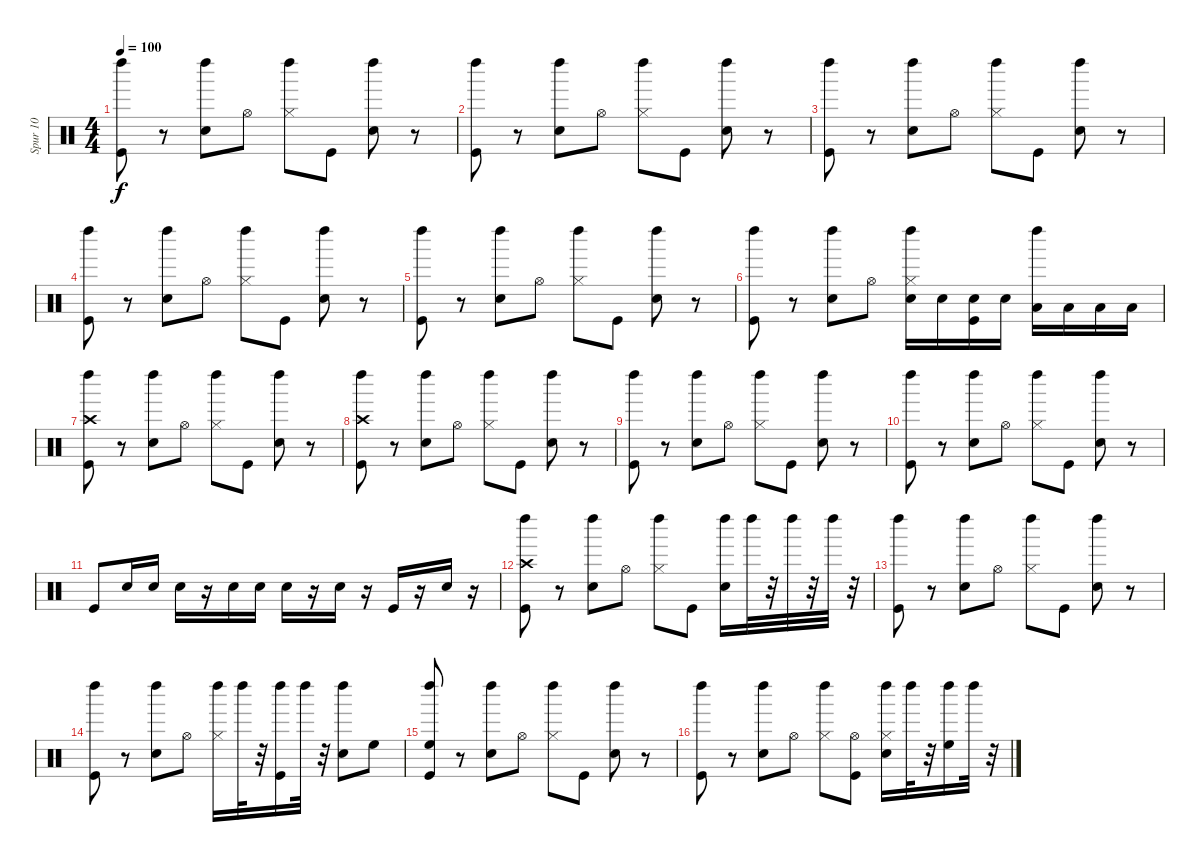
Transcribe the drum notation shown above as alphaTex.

\track ("Spur 10" "Spur 10") {instrument percussion}
\staff {score}
\articulation defaults
\ts (4 4)
\tempo 100
\clef neutral
\ks c
("Kick (hit)" "Left Maraca (hit)").8{dy f} r.8 ("Snare (hit) 2" "Left Maraca (hit)").8 "Hi-Hat (open)".8 ("Hi-Hat (closed)" "Left Maraca (hit)").8 "Kick (hit)".8 ("Snare (hit) 2" "Left Maraca (hit)").8 r.8 |
("Kick (hit)" "Left Maraca (hit)").8 r.8 ("Snare (hit) 2" "Left Maraca (hit)").8 "Hi-Hat (open)".8 ("Hi-Hat (closed)" "Left Maraca (hit)").8 "Kick (hit)".8 ("Snare (hit) 2" "Left Maraca (hit)").8 r.8 |
("Kick (hit)" "Left Maraca (hit)").8 r.8 ("Snare (hit) 2" "Left Maraca (hit)").8 "Hi-Hat (open)".8 ("Hi-Hat (closed)" "Left Maraca (hit)").8 "Kick (hit)".8 ("Snare (hit) 2" "Left Maraca (hit)").8 r.8 |
("Kick (hit)" "Left Maraca (hit)").8 r.8 ("Snare (hit) 2" "Left Maraca (hit)").8 "Hi-Hat (open)".8 ("Hi-Hat (closed)" "Left Maraca (hit)").8 "Kick (hit)".8 ("Snare (hit) 2" "Left Maraca (hit)").8 r.8 |
("Kick (hit)" "Left Maraca (hit)").8 r.8 ("Snare (hit) 2" "Left Maraca (hit)").8 "Hi-Hat (open)".8 ("Hi-Hat (closed)" "Left Maraca (hit)").8 "Kick (hit)".8 ("Snare (hit) 2" "Left Maraca (hit)").8 r.8 |
("Kick (hit)" "Left Maraca (hit)").8 r.8 ("Snare (hit) 2" "Left Maraca (hit)").8 "Hi-Hat (open)".8 ("Electric Snare (hit)" "Hi-Hat (closed)" "Left Maraca (hit)").16 "Electric Snare (hit)".16 ("Electric Snare (hit)" "Kick (hit)").16 "Electric Snare (hit)".16 ("Low Tom (hit)" "Left Maraca (hit)").16 "Low Tom (hit)".16 "Low Tom (hit)".16 "Low Tom (hit)".16 |
("Crash high (hit)" "Kick (hit)" "Left Maraca (hit)").8 r.8 ("Snare (hit) 2" "Left Maraca (hit)").8 "Hi-Hat (open)".8 ("Hi-Hat (closed)" "Left Maraca (hit)").8 "Kick (hit)".8 ("Snare (hit) 2" "Left Maraca (hit)").8 r.8 |
("Crash high (hit)" "Kick (hit)" "Left Maraca (hit)").8 r.8 ("Snare (hit) 2" "Left Maraca (hit)").8 "Hi-Hat (open)".8 ("Hi-Hat (closed)" "Left Maraca (hit)").8 "Kick (hit)".8 ("Snare (hit) 2" "Left Maraca (hit)").8 r.8 |
("Kick (hit)" "Left Maraca (hit)").8 r.8 ("Snare (hit) 2" "Left Maraca (hit)").8 "Hi-Hat (open)".8 ("Hi-Hat (closed)" "Left Maraca (hit)").8 "Kick (hit)".8 ("Snare (hit) 2" "Left Maraca (hit)").8 r.8 |
("Kick (hit)" "Left Maraca (hit)").8 r.8 ("Snare (hit) 2" "Left Maraca (hit)").8 "Hi-Hat (open)".8 ("Hi-Hat (closed)" "Left Maraca (hit)").8 "Kick (hit)".8 ("Snare (hit) 2" "Left Maraca (hit)").8 r.8 |
"Kick (hit)".8 "Electric Snare (hit)".16 "Electric Snare (hit)".16 "Electric Snare (hit)".16 r.16 "Electric Snare (hit)".16 "Electric Snare (hit)".16 "Electric Snare (hit)".16 r.16 "Electric Snare (hit)".16 r.16 "Kick (hit)".16 r.16 "Electric Snare (hit)".16 r.16 |
("Kick (hit)" "Crash high (hit)" "Left Maraca (hit)").8 r.8 ("Snare (hit) 2" "Left Maraca (hit)").8 "Hi-Hat (open)".8 ("Hi-Hat (closed)" "Left Maraca (hit)").8 "Kick (hit)".8 ("Snare (hit) 2" "Left Maraca (hit)").16 "Left Maraca (hit)".32 r.32 "Left Maraca (hit)".32 r.32 "Left Maraca (hit)".32 r.32 |
("Kick (hit)" "Left Maraca (hit)").8 r.8 ("Snare (hit) 2" "Left Maraca (hit)").8 "Hi-Hat (open)".8 ("Hi-Hat (closed)" "Left Maraca (hit)").8 "Kick (hit)".8 ("Snare (hit) 2" "Left Maraca (hit)").8 r.8 |
("Kick (hit)" "Left Maraca (hit)").8 r.8 ("Snare (hit) 2" "Left Maraca (hit)").8 "Hi-Hat (open)".8 ("Hi-Hat (closed)" "Left Maraca (hit)").16 "Left Maraca (hit)".32 r.32 ("Kick (hit)" "Left Maraca (hit)").16 "Left Maraca (hit)".32 r.32 ("Snare (hit) 2" "Left Maraca (hit)").8 "High Floor Tom (hit)".8 |
("High Floor Tom (hit)" "Kick (hit)" "Left Maraca (hit)").8 r.8 ("Snare (hit) 2" "Left Maraca (hit)").8 "Hi-Hat (open)".8 ("Hi-Hat (closed)" "Left Maraca (hit)").8 "Kick (hit)".8 ("Snare (hit) 2" "Left Maraca (hit)").8 r.8 |
("Kick (hit)" "Left Maraca (hit)").8 r.8 ("Snare (hit) 2" "Left Maraca (hit)").8 "Hi-Hat (open)".8 ("Hi-Hat (closed)" "Left Maraca (hit)").8 ("Hi-Hat (open)" "Kick (hit)").8 ("Hi-Hat (closed)" "Snare (hit) 2" "Left Maraca (hit)").16 "Left Maraca (hit)".32 r.32 ("High Floor Tom (hit)" "Left Maraca (hit)").16 "Left Maraca (hit)".32 r.32
